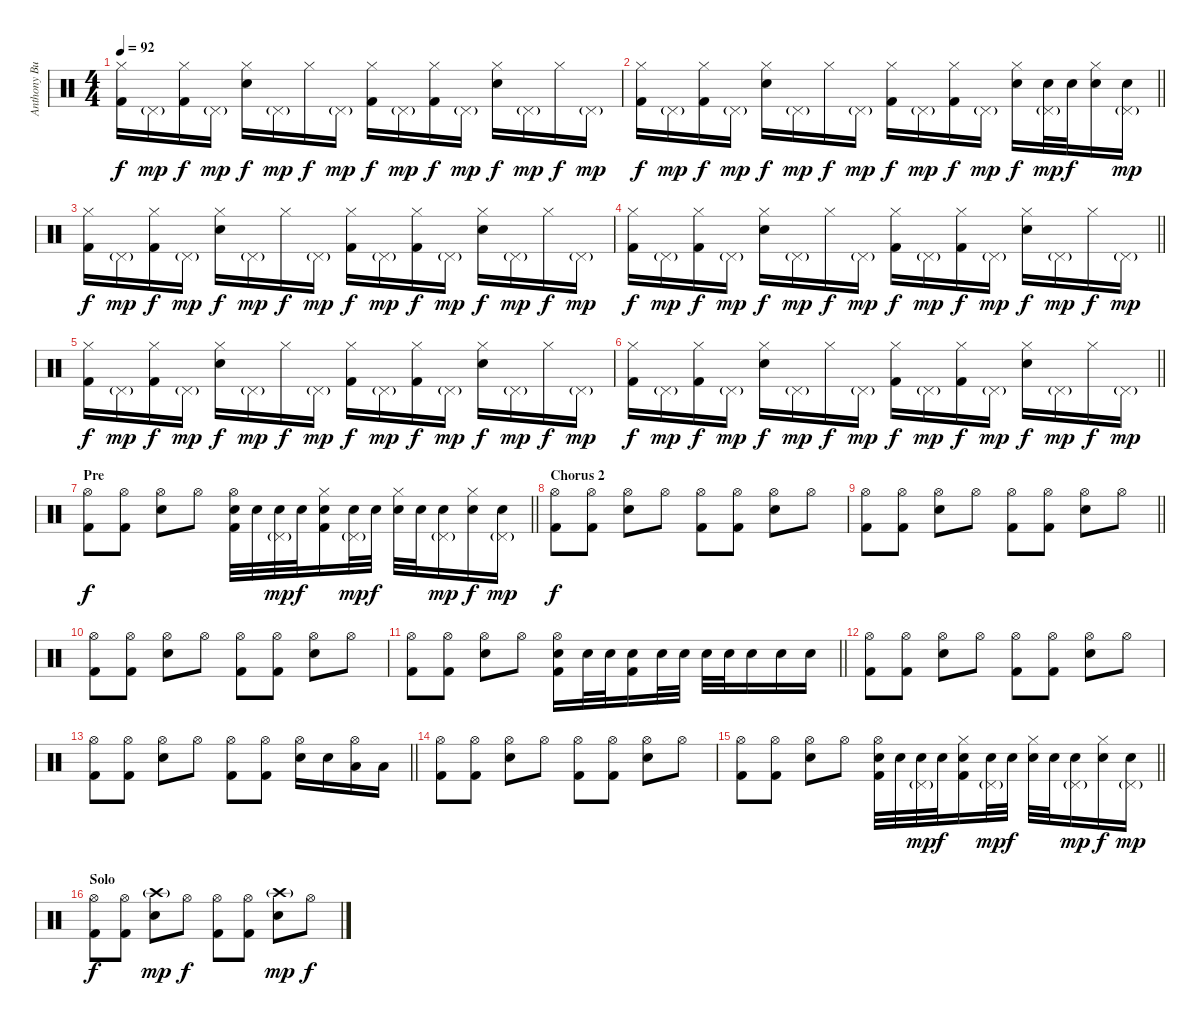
\track ("Anthony Burulcich" "Anthony Bu") {instrument percussion}
\staff {score}
\articulation defaults
\ts (4 4)
\tempo 92
\clef neutral
\ks c
("Hi-Hat (closed)" "Kick (hit) 2").16{dy f} "Pedal Hi-Hat (hit)"{g}.16{dy mp} ("Hi-Hat (closed)" "Kick (hit) 2").16{dy f} "Pedal Hi-Hat (hit)"{g}.16{dy mp} ("Hi-Hat (closed)" "Snare (hit) 2").16{dy f} "Pedal Hi-Hat (hit)"{g}.16{dy mp} "Hi-Hat (closed)".16{dy f} "Pedal Hi-Hat (hit)"{g}.16{dy mp} ("Hi-Hat (closed)" "Kick (hit) 2").16{dy f} "Pedal Hi-Hat (hit)"{g}.16{dy mp} ("Hi-Hat (closed)" "Kick (hit) 2").16{dy f} "Pedal Hi-Hat (hit)"{g}.16{dy mp} ("Hi-Hat (closed)" "Snare (hit) 2").16{dy f} "Pedal Hi-Hat (hit)"{g}.16{dy mp} "Hi-Hat (closed)".16{dy f} "Pedal Hi-Hat (hit)"{g}.16{dy mp} |
\barLineRight lightlight
("Hi-Hat (closed)" "Kick (hit) 2").16{dy f} "Pedal Hi-Hat (hit)"{g}.16{dy mp} ("Hi-Hat (closed)" "Kick (hit) 2").16{dy f} "Pedal Hi-Hat (hit)"{g}.16{dy mp} ("Hi-Hat (closed)" "Snare (hit) 2").16{dy f} "Pedal Hi-Hat (hit)"{g}.16{dy mp} "Hi-Hat (closed)".16{dy f} "Pedal Hi-Hat (hit)"{g}.16{dy mp} ("Hi-Hat (closed)" "Kick (hit) 2").16{dy f} "Pedal Hi-Hat (hit)"{g}.16{dy mp} ("Hi-Hat (closed)" "Kick (hit) 2").16{dy f} "Pedal Hi-Hat (hit)"{g}.16{dy mp} ("Hi-Hat (closed)" "Snare (hit) 2").16{dy f} ("Pedal Hi-Hat (hit)"{g} "Snare (hit) 2").32{dy mp} "Snare (hit) 2".32{dy f} ("Hi-Hat (closed)" "Snare (hit) 2").16 ("Pedal Hi-Hat (hit)"{g} "Snare (hit) 2").16{dy mp} |
("Hi-Hat (closed)" "Kick (hit) 2").16{dy f} "Pedal Hi-Hat (hit)"{g}.16{dy mp} ("Hi-Hat (closed)" "Kick (hit) 2").16{dy f} "Pedal Hi-Hat (hit)"{g}.16{dy mp} ("Hi-Hat (closed)" "Snare (hit) 2").16{dy f} "Pedal Hi-Hat (hit)"{g}.16{dy mp} "Hi-Hat (closed)".16{dy f} "Pedal Hi-Hat (hit)"{g}.16{dy mp} ("Hi-Hat (closed)" "Kick (hit) 2").16{dy f} "Pedal Hi-Hat (hit)"{g}.16{dy mp} ("Hi-Hat (closed)" "Kick (hit) 2").16{dy f} "Pedal Hi-Hat (hit)"{g}.16{dy mp} ("Hi-Hat (closed)" "Snare (hit) 2").16{dy f} "Pedal Hi-Hat (hit)"{g}.16{dy mp} "Hi-Hat (closed)".16{dy f} "Pedal Hi-Hat (hit)"{g}.16{dy mp} |
\barLineRight lightlight
("Hi-Hat (closed)" "Kick (hit) 2").16{dy f} "Pedal Hi-Hat (hit)"{g}.16{dy mp} ("Hi-Hat (closed)" "Kick (hit) 2").16{dy f} "Pedal Hi-Hat (hit)"{g}.16{dy mp} ("Hi-Hat (closed)" "Snare (hit) 2").16{dy f} "Pedal Hi-Hat (hit)"{g}.16{dy mp} "Hi-Hat (closed)".16{dy f} "Pedal Hi-Hat (hit)"{g}.16{dy mp} ("Hi-Hat (closed)" "Kick (hit) 2").16{dy f} "Pedal Hi-Hat (hit)"{g}.16{dy mp} ("Hi-Hat (closed)" "Kick (hit) 2").16{dy f} "Pedal Hi-Hat (hit)"{g}.16{dy mp} ("Hi-Hat (closed)" "Snare (hit) 2").16{dy f} "Pedal Hi-Hat (hit)"{g}.16{dy mp} "Hi-Hat (closed)".16{dy f} "Pedal Hi-Hat (hit)"{g}.16{dy mp} |
("Hi-Hat (closed)" "Kick (hit) 2").16{dy f} "Pedal Hi-Hat (hit)"{g}.16{dy mp} ("Hi-Hat (closed)" "Kick (hit) 2").16{dy f} "Pedal Hi-Hat (hit)"{g}.16{dy mp} ("Hi-Hat (closed)" "Snare (hit) 2").16{dy f} "Pedal Hi-Hat (hit)"{g}.16{dy mp} "Hi-Hat (closed)".16{dy f} "Pedal Hi-Hat (hit)"{g}.16{dy mp} ("Hi-Hat (closed)" "Kick (hit) 2").16{dy f} "Pedal Hi-Hat (hit)"{g}.16{dy mp} ("Hi-Hat (closed)" "Kick (hit) 2").16{dy f} "Pedal Hi-Hat (hit)"{g}.16{dy mp} ("Hi-Hat (closed)" "Snare (hit) 2").16{dy f} "Pedal Hi-Hat (hit)"{g}.16{dy mp} "Hi-Hat (closed)".16{dy f} "Pedal Hi-Hat (hit)"{g}.16{dy mp} |
\barLineRight lightlight
("Hi-Hat (closed)" "Kick (hit) 2").16{dy f} "Pedal Hi-Hat (hit)"{g}.16{dy mp} ("Hi-Hat (closed)" "Kick (hit) 2").16{dy f} "Pedal Hi-Hat (hit)"{g}.16{dy mp} ("Hi-Hat (closed)" "Snare (hit) 2").16{dy f} "Pedal Hi-Hat (hit)"{g}.16{dy mp} "Hi-Hat (closed)".16{dy f} "Pedal Hi-Hat (hit)"{g}.16{dy mp} ("Hi-Hat (closed)" "Kick (hit) 2").16{dy f} "Pedal Hi-Hat (hit)"{g}.16{dy mp} ("Hi-Hat (closed)" "Kick (hit) 2").16{dy f} "Pedal Hi-Hat (hit)"{g}.16{dy mp} ("Hi-Hat (closed)" "Snare (hit) 2").16{dy f} "Pedal Hi-Hat (hit)"{g}.16{dy mp} "Hi-Hat (closed)".16{dy f} "Pedal Hi-Hat (hit)"{g}.16{dy mp} |
\section ("" "Pre")
\barLineRight lightlight
("Hi-Hat (open)" "Kick (hit) 2").8{dy f} ("Hi-Hat (open)" "Kick (hit) 2").8 ("Hi-Hat (open)" "Snare (hit) 2").8 "Hi-Hat (open)".8 ("Hi-Hat (open)" "Snare (hit) 2" "Kick (hit) 2").32 "Snare (hit) 2".32 ("Pedal Hi-Hat (hit)"{g} "Snare (hit) 2").32{dy mp} "Snare (hit) 2".32{dy f} ("Hi-Hat (closed)" "Snare (hit) 2" "Kick (hit) 2").16 ("Pedal Hi-Hat (hit)"{g} "Snare (hit) 2").32{dy mp} "Snare (hit) 2".32{dy f} ("Hi-Hat (closed)" "Snare (hit) 2").32 "Snare (hit) 2".32 ("Pedal Hi-Hat (hit)"{g} "Snare (hit) 2").16{dy mp} ("Hi-Hat (closed)" "Snare (hit) 2").16{dy f} ("Pedal Hi-Hat (hit)"{g} "Snare (hit) 2").16{dy mp} |
\section ("" "Chorus 2")
("Hi-Hat (open)" "Kick (hit) 2").8{dy f} ("Hi-Hat (open)" "Kick (hit) 2").8 ("Hi-Hat (open)" "Snare (hit) 2").8 "Hi-Hat (open)".8 ("Hi-Hat (open)" "Kick (hit) 2").8 ("Hi-Hat (open)" "Kick (hit) 2").8 ("Hi-Hat (open)" "Snare (hit) 2").8 "Hi-Hat (open)".8 |
\barLineRight lightlight
("Hi-Hat (open)" "Kick (hit) 2").8 ("Hi-Hat (open)" "Kick (hit) 2").8 ("Hi-Hat (open)" "Snare (hit) 2").8 "Hi-Hat (open)".8 ("Hi-Hat (open)" "Kick (hit) 2").8 ("Hi-Hat (open)" "Kick (hit) 2").8 ("Hi-Hat (open)" "Snare (hit) 2").8 "Hi-Hat (open)".8 |
("Hi-Hat (open)" "Kick (hit) 2").8 ("Hi-Hat (open)" "Kick (hit) 2").8 ("Hi-Hat (open)" "Snare (hit) 2").8 "Hi-Hat (open)".8 ("Hi-Hat (open)" "Kick (hit) 2").8 ("Hi-Hat (open)" "Kick (hit) 2").8 ("Hi-Hat (open)" "Snare (hit) 2").8 "Hi-Hat (open)".8 |
\barLineRight lightlight
("Hi-Hat (open)" "Kick (hit) 2").8 ("Hi-Hat (open)" "Kick (hit) 2").8 ("Hi-Hat (open)" "Snare (hit) 2").8 "Hi-Hat (open)".8 ("Hi-Hat (open)" "Snare (hit) 2" "Kick (hit) 2").16 "Snare (hit) 2".32 "Snare (hit) 2".32 ("Snare (hit) 2" "Kick (hit) 2").16 "Snare (hit) 2".32 "Snare (hit) 2".32 "Snare (hit) 2".32 "Snare (hit) 2".32 "Snare (hit) 2".16 "Snare (hit) 2".16 "Snare (hit) 2".16 |
("Hi-Hat (open)" "Kick (hit) 2").8 ("Hi-Hat (open)" "Kick (hit) 2").8 ("Hi-Hat (open)" "Snare (hit) 2").8 "Hi-Hat (open)".8 ("Hi-Hat (open)" "Kick (hit) 2").8 ("Hi-Hat (open)" "Kick (hit) 2").8 ("Hi-Hat (open)" "Snare (hit) 2").8 "Hi-Hat (open)".8 |
\barLineRight lightlight
("Hi-Hat (open)" "Kick (hit) 2").8 ("Hi-Hat (open)" "Kick (hit) 2").8 ("Hi-Hat (open)" "Snare (hit) 2").8 "Hi-Hat (open)".8 ("Hi-Hat (open)" "Kick (hit) 2").8 ("Hi-Hat (open)" "Kick (hit) 2").8 ("Hi-Hat (open)" "Snare (hit) 2").16 "Snare (hit) 2".16 ("Hi-Hat (open)" "Low Tom (hit)").16 "Low Tom (hit)".16 |
("Hi-Hat (open)" "Kick (hit) 2").8 ("Hi-Hat (open)" "Kick (hit) 2").8 ("Hi-Hat (open)" "Snare (hit) 2").8 "Hi-Hat (open)".8 ("Hi-Hat (open)" "Kick (hit) 2").8 ("Hi-Hat (open)" "Kick (hit) 2").8 ("Hi-Hat (open)" "Snare (hit) 2").8 "Hi-Hat (open)".8 |
\barLineRight lightlight
("Hi-Hat (open)" "Kick (hit) 2").8 ("Hi-Hat (open)" "Kick (hit) 2").8 ("Hi-Hat (open)" "Snare (hit) 2").8 "Hi-Hat (open)".8 ("Hi-Hat (open)" "Snare (hit) 2" "Kick (hit) 2").32 "Snare (hit) 2".32 ("Pedal Hi-Hat (hit)"{g} "Snare (hit) 2").32{dy mp} "Snare (hit) 2".32{dy f} ("Hi-Hat (closed)" "Snare (hit) 2" "Kick (hit) 2").16 ("Pedal Hi-Hat (hit)"{g} "Snare (hit) 2").32{dy mp} "Snare (hit) 2".32{dy f} ("Hi-Hat (closed)" "Snare (hit) 2").32 "Snare (hit) 2".32 ("Pedal Hi-Hat (hit)"{g} "Snare (hit) 2").16{dy mp} ("Hi-Hat (closed)" "Snare (hit) 2").16{dy f} ("Pedal Hi-Hat (hit)"{g} "Snare (hit) 2").16{dy mp} |
\section ("" "Solo")
("Hi-Hat (open)" "Kick (hit) 2").8{dy f} ("Hi-Hat (open)" "Kick (hit) 2").8 ("Snare (hit) 2" "Crash high (hit)"{g}).8{dy mp} "Hi-Hat (open)".8{dy f} ("Hi-Hat (open)" "Kick (hit) 2").8 ("Hi-Hat (open)" "Kick (hit) 2").8 ("Snare (hit) 2" "Crash high (hit)"{g}).8{dy mp} "Hi-Hat (open)".8{dy f}
